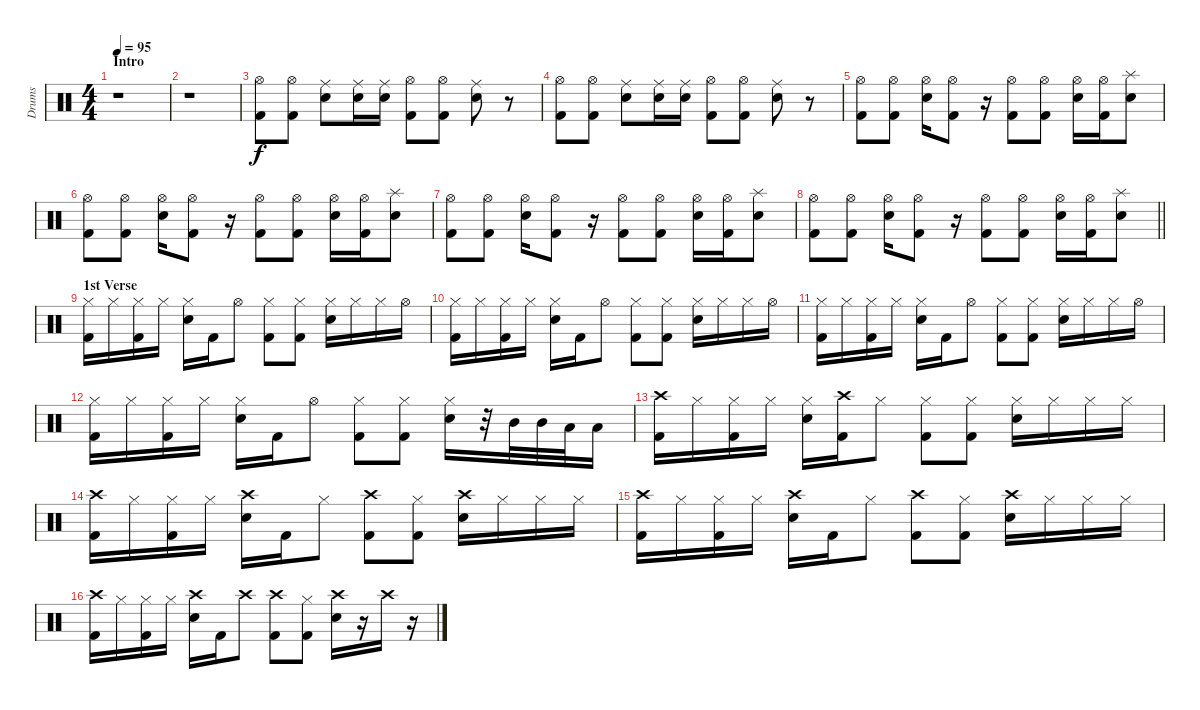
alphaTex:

\track ("Drums" "Drums") {instrument percussion}
\staff {score}
\articulation defaults
\ts (4 4)
\section ("" "Intro")
\tempo 95
\clef neutral
\ks c
r.1{dy f} |
r.1 |
("Kick (hit) 2" "Hi-Hat (open)").8 ("Kick (hit) 2" "Hi-Hat (open)").8 ("Ride (middle)" "Electric Snare (hit)").8 ("Ride (middle)" "Electric Snare (hit)").16 ("Ride (middle)" "Electric Snare (hit)").16 ("Kick (hit) 2" "Hi-Hat (open)").8 ("Kick (hit) 2" "Hi-Hat (open)").8 ("Ride (middle)" "Electric Snare (hit)").8 r.8 |
("Kick (hit) 2" "Hi-Hat (open)").8 ("Kick (hit) 2" "Hi-Hat (open)").8 ("Ride (middle)" "Electric Snare (hit)").8 ("Ride (middle)" "Electric Snare (hit)").16 ("Ride (middle)" "Electric Snare (hit)").16 ("Kick (hit) 2" "Hi-Hat (open)").8 ("Kick (hit) 2" "Hi-Hat (open)").8 ("Ride (middle)" "Electric Snare (hit)").8 r.8 |
("Hi-Hat (open)" "Kick (hit) 2").8 ("Hi-Hat (open)" "Kick (hit) 2").8 ("Hi-Hat (open)" "Electric Snare (hit)").16 ("Hi-Hat (open)" "Kick (hit) 2").8 r.16 ("Hi-Hat (open)" "Kick (hit) 2").8 ("Hi-Hat (open)" "Kick (hit) 2").8 ("Hi-Hat (open)" "Electric Snare (hit)").16 ("Hi-Hat (open)" "Kick (hit) 2").16 ("Splash (hit)" "Electric Snare (hit)").8 |
("Hi-Hat (open)" "Kick (hit) 2").8 ("Hi-Hat (open)" "Kick (hit) 2").8 ("Hi-Hat (open)" "Electric Snare (hit)").16 ("Hi-Hat (open)" "Kick (hit) 2").8 r.16 ("Hi-Hat (open)" "Kick (hit) 2").8 ("Hi-Hat (open)" "Kick (hit) 2").8 ("Hi-Hat (open)" "Electric Snare (hit)").16 ("Hi-Hat (open)" "Kick (hit) 2").16 ("Splash (hit)" "Electric Snare (hit)").8 |
("Hi-Hat (open)" "Kick (hit) 2").8 ("Hi-Hat (open)" "Kick (hit) 2").8 ("Hi-Hat (open)" "Electric Snare (hit)").16 ("Hi-Hat (open)" "Kick (hit) 2").8 r.16 ("Hi-Hat (open)" "Kick (hit) 2").8 ("Hi-Hat (open)" "Kick (hit) 2").8 ("Hi-Hat (open)" "Electric Snare (hit)").16 ("Hi-Hat (open)" "Kick (hit) 2").16 ("Splash (hit)" "Electric Snare (hit)").8 |
\barLineRight lightlight
("Hi-Hat (open)" "Kick (hit) 2").8 ("Hi-Hat (open)" "Kick (hit) 2").8 ("Hi-Hat (open)" "Electric Snare (hit)").16 ("Hi-Hat (open)" "Kick (hit) 2").8 r.16 ("Hi-Hat (open)" "Kick (hit) 2").8 ("Hi-Hat (open)" "Kick (hit) 2").8 ("Hi-Hat (open)" "Electric Snare (hit)").16 ("Hi-Hat (open)" "Kick (hit) 2").16 ("Splash (hit)" "Electric Snare (hit)").8 |
\section ("" "1st Verse")
("Hi-Hat (closed)" "Kick (hit) 2").16 "Hi-Hat (closed)".16 ("Hi-Hat (closed)" "Kick (hit) 2").16 "Hi-Hat (closed)".16 ("Hi-Hat (closed)" "Electric Snare (hit)").16 "Kick (hit) 2".16 "Hi-Hat (open)".8 ("Hi-Hat (closed)" "Kick (hit) 2").8 ("Hi-Hat (closed)" "Kick (hit) 2").8 ("Hi-Hat (closed)" "Electric Snare (hit)").16 "Hi-Hat (closed)".16 "Hi-Hat (closed)".16 "Hi-Hat (open)".16 |
("Hi-Hat (closed)" "Kick (hit) 2").16 "Hi-Hat (closed)".16 ("Hi-Hat (closed)" "Kick (hit) 2").16 "Hi-Hat (closed)".16 ("Hi-Hat (closed)" "Electric Snare (hit)").16 "Kick (hit) 2".16 "Hi-Hat (open)".8 ("Hi-Hat (closed)" "Kick (hit) 2").8 ("Hi-Hat (closed)" "Kick (hit) 2").8 ("Hi-Hat (closed)" "Electric Snare (hit)").16 "Hi-Hat (closed)".16 "Hi-Hat (closed)".16 "Hi-Hat (open)".16 |
("Hi-Hat (closed)" "Kick (hit) 2").16 "Hi-Hat (closed)".16 ("Hi-Hat (closed)" "Kick (hit) 2").16 "Hi-Hat (closed)".16 ("Hi-Hat (closed)" "Electric Snare (hit)").16 "Kick (hit) 2".16 "Hi-Hat (open)".8 ("Hi-Hat (closed)" "Kick (hit) 2").8 ("Hi-Hat (closed)" "Kick (hit) 2").8 ("Hi-Hat (closed)" "Electric Snare (hit)").16 "Hi-Hat (closed)".16 "Hi-Hat (closed)".16 "Hi-Hat (open)".16 |
("Hi-Hat (closed)" "Kick (hit) 2").16 "Hi-Hat (closed)".16 ("Hi-Hat (closed)" "Kick (hit) 2").16 "Hi-Hat (closed)".16 ("Hi-Hat (closed)" "Electric Snare (hit)").16 "Kick (hit) 2".16 "Hi-Hat (open)".8 ("Hi-Hat (closed)" "Kick (hit) 2").8 ("Hi-Hat (closed)" "Kick (hit) 2").8 ("Hi-Hat (closed)" "Electric Snare (hit)").16 r.32 "Mid Tom (hit)".32 "Mid Tom (hit)".32 "Low Tom (hit)".32 "Low Tom (hit)".16 |
("Crash high (hit)" "Kick (hit) 2").16 "Hi-Hat (closed)".16 ("Hi-Hat (closed)" "Kick (hit) 2").16 "Hi-Hat (closed)".16 ("Hi-Hat (closed)" "Electric Snare (hit)").16 ("Crash high (hit)" "Kick (hit) 2").16 "Hi-Hat (closed)".8 ("Hi-Hat (closed)" "Kick (hit) 2").8 ("Hi-Hat (closed)" "Kick (hit) 2").8 ("Hi-Hat (closed)" "Electric Snare (hit)").16 "Hi-Hat (closed)".16 "Hi-Hat (closed)".16 "Hi-Hat (closed)".16 |
("Crash high (hit)" "Kick (hit) 2").16 "Hi-Hat (closed)".16 ("Hi-Hat (closed)" "Kick (hit) 2").16 "Hi-Hat (closed)".16 ("Crash high (hit)" "Electric Snare (hit)").16 "Kick (hit) 2".16 "Hi-Hat (closed)".8 ("Crash high (hit)" "Kick (hit) 2").8 ("Hi-Hat (closed)" "Kick (hit) 2").8 ("Crash high (hit)" "Electric Snare (hit)").16 "Hi-Hat (closed)".16 "Hi-Hat (closed)".16 "Hi-Hat (closed)".16 |
("Crash high (hit)" "Kick (hit) 2").16 "Hi-Hat (closed)".16 ("Hi-Hat (closed)" "Kick (hit) 2").16 "Hi-Hat (closed)".16 ("Crash high (hit)" "Electric Snare (hit)").16 "Kick (hit) 2".16 "Hi-Hat (closed)".8 ("Crash high (hit)" "Kick (hit) 2").8 ("Hi-Hat (closed)" "Kick (hit) 2").8 ("Crash high (hit)" "Electric Snare (hit)").16 "Hi-Hat (closed)".16 "Hi-Hat (closed)".16 "Hi-Hat (closed)".16 |
("Crash high (hit)" "Kick (hit) 2").16 "Hi-Hat (closed)".16 ("Hi-Hat (closed)" "Kick (hit) 2").16 "Hi-Hat (closed)".16 ("Crash high (hit)" "Electric Snare (hit)").16 "Kick (hit) 2".16 "Crash high (hit)".8 ("Crash high (hit)" "Kick (hit) 2").8 ("Hi-Hat (closed)" "Kick (hit) 2").8 ("Crash high (hit)" "Electric Snare (hit)").16 r.16 "Crash high (hit)".16 r.16
